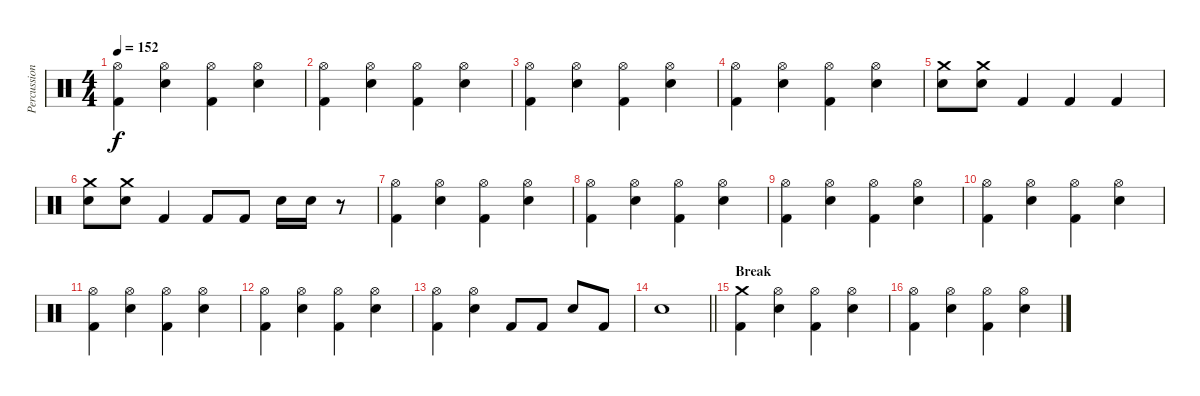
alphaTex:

\track ("Percussion" "Percussion") {instrument percussion}
\staff {score}
\articulation defaults
\ts (4 4)
\tempo 152
\clef neutral
\ks c
("Hi-Hat (open)" "Kick (hit) 2").4{dy f} ("Hi-Hat (open)" "Electric Snare (hit)").4 ("Hi-Hat (open)" "Kick (hit) 2").4 ("Hi-Hat (open)" "Electric Snare (hit)").4 |
("Hi-Hat (open)" "Kick (hit) 2").4 ("Hi-Hat (open)" "Electric Snare (hit)").4 ("Hi-Hat (open)" "Kick (hit) 2").4 ("Hi-Hat (open)" "Electric Snare (hit)").4 |
("Hi-Hat (open)" "Kick (hit) 2").4 ("Hi-Hat (open)" "Electric Snare (hit)").4 ("Hi-Hat (open)" "Kick (hit) 2").4 ("Hi-Hat (open)" "Electric Snare (hit)").4 |
("Hi-Hat (open)" "Kick (hit) 2").4 ("Hi-Hat (open)" "Electric Snare (hit)").4 ("Hi-Hat (open)" "Kick (hit) 2").4 ("Hi-Hat (open)" "Electric Snare (hit)").4 |
("Crash medium (hit)" "Electric Snare (hit)").8 ("Crash medium (hit)" "Electric Snare (hit)").8 "Kick (hit) 2".4 "Kick (hit) 2".4 "Kick (hit) 2".4 |
("Crash medium (hit)" "Electric Snare (hit)").8 ("Crash medium (hit)" "Electric Snare (hit)").8 "Kick (hit) 2".4 "Kick (hit) 2".8 "Kick (hit) 2".8 "Electric Snare (hit)".16 "Electric Snare (hit)".16 r.8 |
("Hi-Hat (open)" "Kick (hit) 2").4 ("Hi-Hat (open)" "Electric Snare (hit)").4 ("Hi-Hat (open)" "Kick (hit) 2").4 ("Hi-Hat (open)" "Electric Snare (hit)").4 |
("Hi-Hat (open)" "Kick (hit) 2").4 ("Hi-Hat (open)" "Electric Snare (hit)").4 ("Hi-Hat (open)" "Kick (hit) 2").4 ("Hi-Hat (open)" "Electric Snare (hit)").4 |
("Hi-Hat (open)" "Kick (hit) 2").4 ("Hi-Hat (open)" "Electric Snare (hit)").4 ("Hi-Hat (open)" "Kick (hit) 2").4 ("Hi-Hat (open)" "Electric Snare (hit)").4 |
("Hi-Hat (open)" "Kick (hit) 2").4 ("Hi-Hat (open)" "Electric Snare (hit)").4 ("Hi-Hat (open)" "Kick (hit) 2").4 ("Hi-Hat (open)" "Electric Snare (hit)").4 |
("Hi-Hat (open)" "Kick (hit) 2").4 ("Hi-Hat (open)" "Electric Snare (hit)").4 ("Hi-Hat (open)" "Kick (hit) 2").4 ("Hi-Hat (open)" "Electric Snare (hit)").4 |
("Hi-Hat (open)" "Kick (hit) 2").4 ("Hi-Hat (open)" "Electric Snare (hit)").4 ("Hi-Hat (open)" "Kick (hit) 2").4 ("Hi-Hat (open)" "Electric Snare (hit)").4 |
("Hi-Hat (open)" "Kick (hit) 2").4 ("Hi-Hat (open)" "Electric Snare (hit)").4 "Kick (hit) 2".8 "Kick (hit) 2".8 "Electric Snare (hit)".8 "Kick (hit) 2".8 |
\barLineRight lightlight "Electric Snare (hit)".1
|
\section ("" "Break")
("Crash medium (hit)" "Kick (hit) 2").4 ("Hi-Hat (open)" "Electric Snare (hit)").4 ("Hi-Hat (open)" "Kick (hit) 2").4 ("Hi-Hat (open)" "Electric Snare (hit)").4 |
("Hi-Hat (open)" "Kick (hit) 2").4 ("Hi-Hat (open)" "Electric Snare (hit)").4 ("Hi-Hat (open)" "Kick (hit) 2").4 ("Hi-Hat (open)" "Electric Snare (hit)").4
